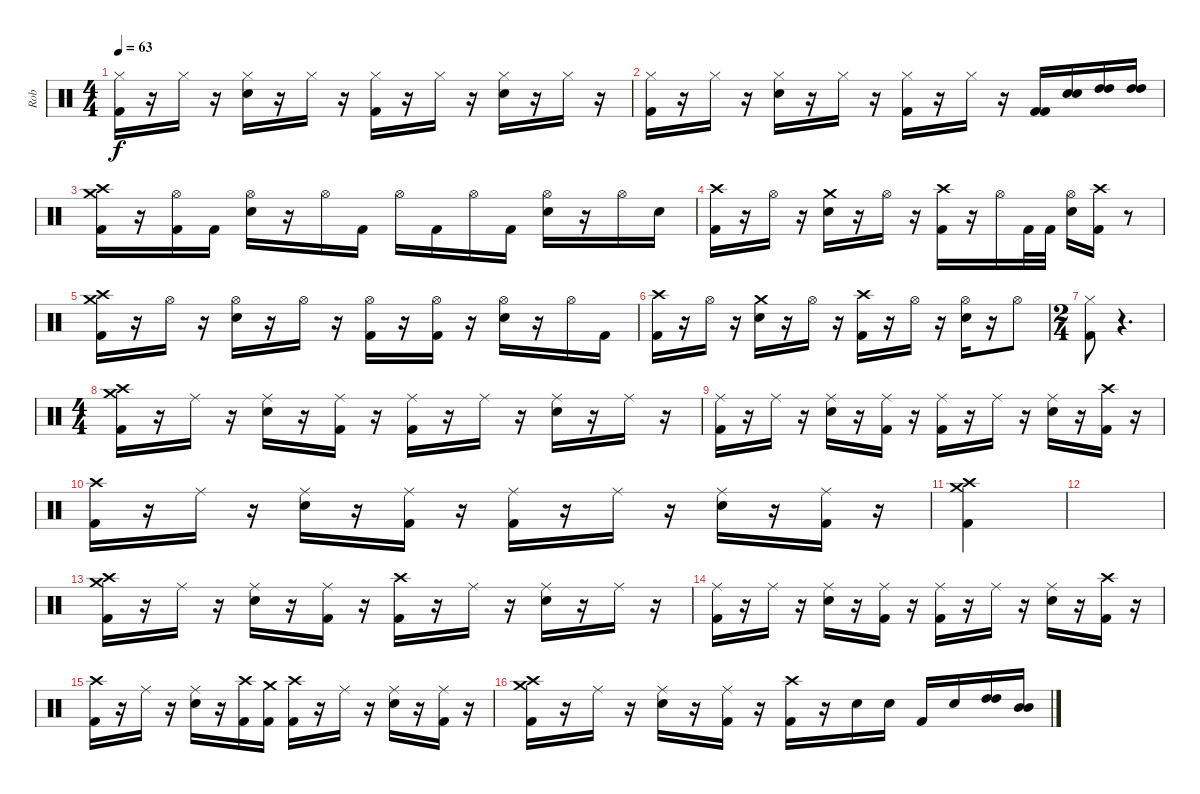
\track ("Rob" "Rob") {instrument percussion}
\staff {score}
\articulation defaults
\ts (4 4)
\tempo 63
\clef neutral
\ks c
("Hi-Hat (closed)" "Kick (hit) 2").16{dy f} r.16 "Hi-Hat (closed)".16 r.16 ("Hi-Hat (closed)" "Electric Snare (hit)").16 r.16 "Hi-Hat (closed)".16 r.16 ("Hi-Hat (closed)" "Kick (hit) 2").16 r.16 "Hi-Hat (closed)".16 r.16 ("Hi-Hat (closed)" "Electric Snare (hit)").16 r.16 "Hi-Hat (closed)".16 r.16 |
("Hi-Hat (closed)" "Kick (hit) 2").16 r.16 "Hi-Hat (closed)".16 r.16 ("Hi-Hat (closed)" "Electric Snare (hit)").16 r.16 "Hi-Hat (closed)".16 r.16 ("Hi-Hat (closed)" "Kick (hit) 2").16 r.16 "Hi-Hat (closed)".16 r.16 ("Kick (hit) 2" "Kick (hit) 2").16 ("Electric Snare (hit)" "Electric Snare (hit)").16 ("High Tom (hit)" "High Tom (hit)").16 ("High Tom (hit)" "High Tom (hit)").16 |
("Crash medium (hit)" "Crash high (hit)" "Kick (hit) 2").16 r.16 ("Hi-Hat (open)" "Kick (hit) 2").16 "Kick (hit) 2".16 ("Hi-Hat (open)" "Electric Snare (hit)").16 r.16 "Hi-Hat (open)".16 "Kick (hit) 2".16 "Hi-Hat (open)".16 "Kick (hit) 2".16 "Hi-Hat (open)".16 "Kick (hit) 2".16 ("Hi-Hat (open)" "Electric Snare (hit)").16 r.16 "Hi-Hat (open)".16 "Electric Snare (hit)".16 |
("Crash high (hit)" "Kick (hit) 2").16 r.16 "Hi-Hat (open)".16 r.16 ("Crash medium (hit)" "Electric Snare (hit)").16 r.16 "Hi-Hat (open)".16 r.16 ("Crash high (hit)" "Kick (hit) 2").16 r.16 "Hi-Hat (open)".16 "Kick (hit) 2".32 "Kick (hit) 2".32 ("Hi-Hat (open)" "Electric Snare (hit)").16 ("Crash high (hit)" "Kick (hit) 2").16 r.8 |
("Crash medium (hit)" "Crash high (hit)" "Kick (hit) 2").16 r.16 "Hi-Hat (open)".16 r.16 ("Hi-Hat (open)" "Electric Snare (hit)").16 r.16 "Hi-Hat (open)".16 r.16 ("Hi-Hat (open)" "Kick (hit) 2").16 r.16 ("Hi-Hat (open)" "Kick (hit) 2").16 r.16 ("Hi-Hat (open)" "Electric Snare (hit)").16 r.16 "Hi-Hat (open)".16 "Kick (hit) 2".16 |
("Crash high (hit)" "Kick (hit) 2").16 r.16 "Hi-Hat (open)".16 r.16 ("Crash medium (hit)" "Electric Snare (hit)").16 r.16 "Hi-Hat (open)".16 r.16 ("Crash high (hit)" "Kick (hit) 2").16 r.16 "Hi-Hat (open)".16 r.16 ("Hi-Hat (open)" "Electric Snare (hit)").16 r.16 "Hi-Hat (open)".8 |
\ts (2 4)
("Hi-Hat (closed)" "Kick (hit) 2").8 r.4{d} |
\ts (4 4)
("Crash medium (hit)" "Crash high (hit)" "Kick (hit) 2").16 r.16 "Ride (middle)".16 r.16 ("Ride (middle)" "Electric Snare (hit)").16 r.16 ("Ride (middle)" "Kick (hit) 2").16 r.16 ("Ride (middle)" "Kick (hit) 2").16 r.16 "Ride (middle)".16 r.16 ("Ride (middle)" "Electric Snare (hit)").16 r.16 "Ride (middle)".16 r.16 |
("Ride (middle)" "Kick (hit) 2").16 r.16 "Ride (middle)".16 r.16 ("Ride (middle)" "Electric Snare (hit)").16 r.16 ("Ride (middle)" "Kick (hit) 2").16 r.16 ("Ride (middle)" "Kick (hit) 2").16 r.16 "Ride (middle)".16 r.16 ("Ride (middle)" "Electric Snare (hit)").16 r.16 ("Crash high (hit)" "Kick (hit) 2").16 r.16 |
("Crash high (hit)" "Kick (hit) 2").16 r.16 "Ride (middle)".16 r.16 ("Ride (middle)" "Electric Snare (hit)").16 r.16 ("Ride (middle)" "Kick (hit) 2").16 r.16 ("Ride (middle)" "Kick (hit) 2").16 r.16 "Ride (middle)".16 r.16 ("Ride (middle)" "Electric Snare (hit)").16 r.16 ("Ride (middle)" "Kick (hit) 2").16 r.16 |
("Crash medium (hit)" "Crash high (hit)" "Kick (hit) 2").4 |
|
("Crash medium (hit)" "Crash high (hit)" "Kick (hit) 2").16 r.16 "Ride (middle)".16 r.16 ("Ride (middle)" "Electric Snare (hit)").16 r.16 ("Ride (middle)" "Kick (hit) 2").16 r.16 ("Crash high (hit)" "Kick (hit) 2").16 r.16 "Ride (middle)".16 r.16 ("Ride (middle)" "Electric Snare (hit)").16 r.16 "Ride (middle)".16 r.16 |
("Ride (middle)" "Kick (hit) 2").16 r.16 "Ride (middle)".16 r.16 ("Ride (middle)" "Electric Snare (hit)").16 r.16 ("Ride (middle)" "Kick (hit) 2").16 r.16 ("Ride (middle)" "Kick (hit) 2").16 r.16 "Ride (middle)".16 r.16 ("Ride (middle)" "Electric Snare (hit)").16 r.16 ("Crash high (hit)" "Kick (hit) 2").16 r.16 |
("Crash high (hit)" "Kick (hit) 2").16 r.16 "Ride (middle)".16 r.16 ("Ride (middle)" "Electric Snare (hit)").16 r.16 ("Crash high (hit)" "Kick (hit) 2").16 ("Crash medium (hit)" "Kick (hit) 2").16 ("Crash high (hit)" "Kick (hit) 2").16 r.16 "Ride (middle)".16 r.16 ("Ride (middle)" "Electric Snare (hit)").16 r.16 ("Ride (middle)" "Kick (hit) 2").16 r.16 |
("Crash medium (hit)" "Crash high (hit)" "Kick (hit) 2").16 r.16 "Ride (middle)".16 r.16 ("Ride (middle)" "Electric Snare (hit)").16 r.16 ("Ride (middle)" "Kick (hit) 2").16 r.16 ("Crash high (hit)" "Kick (hit) 2").16 r.16 "Electric Snare (hit)".16 "Electric Snare (hit)".16 "Kick (hit) 2".16 "Electric Snare (hit)".16 ("High Tom (hit)" "High Tom (hit)").16 ("Mid Tom (hit)" "Mid Tom (hit)").16
